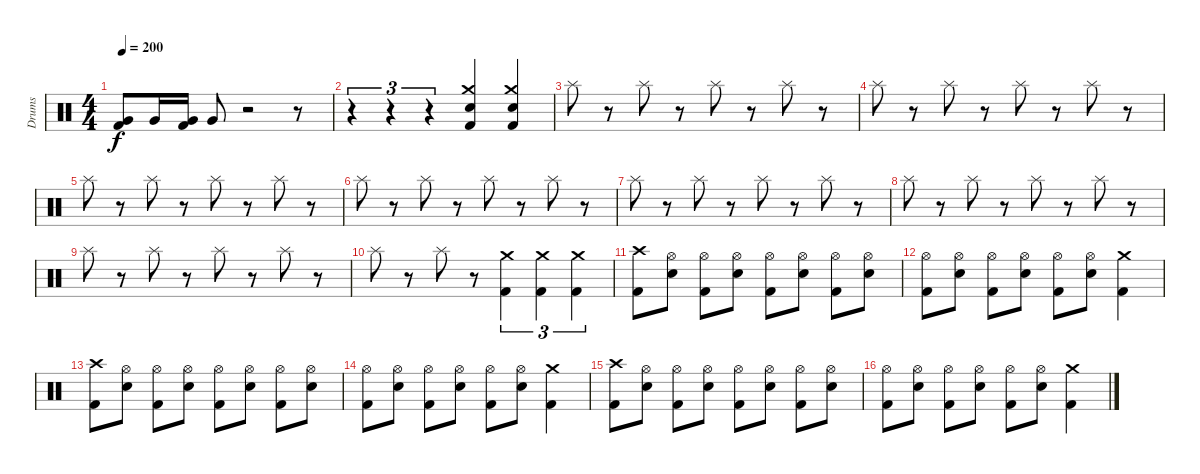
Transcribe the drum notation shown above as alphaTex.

\track ("Drums" "Drums") {instrument percussion}
\staff {score}
\articulation defaults
\ts (4 4)
\tempo 200
\clef neutral
\ks c
("Very Low Tom (hit)" "Kick (hit) 2").8{dy f} "Very Low Tom (hit)".16 ("Very Low Tom (hit)" "Kick (hit) 2").16 "Very Low Tom (hit)".8 r.2 r.8 |
r.4{tu (3 2)} r.4{tu (3 2)} r.4{tu (3 2)} ("Crash medium (hit)" "Electric Snare (hit)" "Kick (hit) 2").4 ("Crash medium (hit)" "Electric Snare (hit)" "Kick (hit) 2").4 |
"Splash (hit)".8 r.8 "Splash (hit)".8 r.8 "Splash (hit)".8 r.8 "Splash (hit)".8 r.8 |
"Splash (hit)".8 r.8 "Splash (hit)".8 r.8 "Splash (hit)".8 r.8 "Splash (hit)".8 r.8 |
"Splash (hit)".8 r.8 "Splash (hit)".8 r.8 "Splash (hit)".8 r.8 "Splash (hit)".8 r.8 |
"Splash (hit)".8 r.8 "Splash (hit)".8 r.8 "Splash (hit)".8 r.8 "Splash (hit)".8 r.8 |
"Splash (hit)".8 r.8 "Splash (hit)".8 r.8 "Splash (hit)".8 r.8 "Splash (hit)".8 r.8 |
"Splash (hit)".8 r.8 "Splash (hit)".8 r.8 "Splash (hit)".8 r.8 "Splash (hit)".8 r.8 |
"Splash (hit)".8 r.8 "Splash (hit)".8 r.8 "Splash (hit)".8 r.8 "Splash (hit)".8 r.8 |
"Splash (hit)".8 r.8 "Splash (hit)".8 r.8 ("Crash medium (hit)" "Kick (hit) 2").4{tu (3 2)} ("Crash medium (hit)" "Kick (hit) 2").4{tu (3 2)} ("Crash medium (hit)" "Kick (hit) 2").4{tu (3 2)} |
("Crash high (hit)" "Kick (hit) 2").8 ("Hi-Hat (open)" "Electric Snare (hit)").8 ("Hi-Hat (open)" "Kick (hit) 2").8 ("Hi-Hat (open)" "Electric Snare (hit)").8 ("Hi-Hat (open)" "Kick (hit) 2").8 ("Hi-Hat (open)" "Electric Snare (hit)").8 ("Hi-Hat (open)" "Kick (hit) 2").8 ("Hi-Hat (open)" "Electric Snare (hit)").8 |
("Hi-Hat (open)" "Kick (hit) 2").8 ("Hi-Hat (open)" "Electric Snare (hit)").8 ("Hi-Hat (open)" "Kick (hit) 2").8 ("Hi-Hat (open)" "Electric Snare (hit)").8 ("Hi-Hat (open)" "Kick (hit) 2").8 ("Hi-Hat (open)" "Electric Snare (hit)").8 ("Crash medium (hit)" "Kick (hit) 2").4 |
("Crash high (hit)" "Kick (hit) 2").8 ("Hi-Hat (open)" "Electric Snare (hit)").8 ("Hi-Hat (open)" "Kick (hit) 2").8 ("Hi-Hat (open)" "Electric Snare (hit)").8 ("Hi-Hat (open)" "Kick (hit) 2").8 ("Hi-Hat (open)" "Electric Snare (hit)").8 ("Hi-Hat (open)" "Kick (hit) 2").8 ("Hi-Hat (open)" "Electric Snare (hit)").8 |
("Hi-Hat (open)" "Kick (hit) 2").8 ("Hi-Hat (open)" "Electric Snare (hit)").8 ("Hi-Hat (open)" "Kick (hit) 2").8 ("Hi-Hat (open)" "Electric Snare (hit)").8 ("Hi-Hat (open)" "Kick (hit) 2").8 ("Hi-Hat (open)" "Electric Snare (hit)").8 ("Crash medium (hit)" "Kick (hit) 2").4 |
("Crash high (hit)" "Kick (hit) 2").8 ("Hi-Hat (open)" "Electric Snare (hit)").8 ("Hi-Hat (open)" "Kick (hit) 2").8 ("Hi-Hat (open)" "Electric Snare (hit)").8 ("Hi-Hat (open)" "Kick (hit) 2").8 ("Hi-Hat (open)" "Electric Snare (hit)").8 ("Hi-Hat (open)" "Kick (hit) 2").8 ("Hi-Hat (open)" "Electric Snare (hit)").8 |
("Hi-Hat (open)" "Kick (hit) 2").8 ("Hi-Hat (open)" "Electric Snare (hit)").8 ("Hi-Hat (open)" "Kick (hit) 2").8 ("Hi-Hat (open)" "Electric Snare (hit)").8 ("Hi-Hat (open)" "Kick (hit) 2").8 ("Hi-Hat (open)" "Electric Snare (hit)").8 ("Crash medium (hit)" "Kick (hit) 2").4
